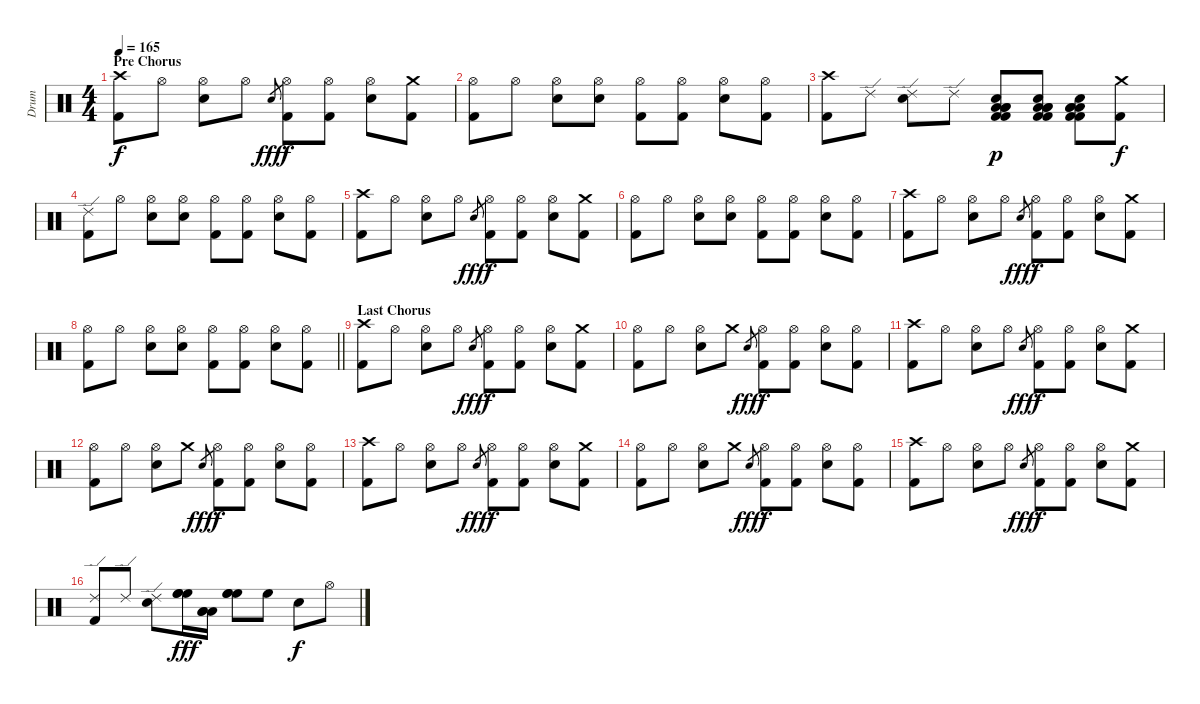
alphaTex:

\track ("Drum" "Drum") {instrument percussion}
\staff {score}
\articulation defaults
\ts (4 4)
\section ("" "Pre Chorus")
\tempo 165
\clef neutral
\ks c
("Crash high (hit)" "Kick (hit) 2").8{dy f} "Hi-Hat (open)".8 ("Hi-Hat (open)" "Electric Snare (hit)").8 "Hi-Hat (open)".8 "Electric Snare (hit)".8{gr dy fff} ("Hi-Hat (open)" "Kick (hit) 2").8{dy f} ("Hi-Hat (open)" "Kick (hit) 2").8 ("Hi-Hat (open)" "Electric Snare (hit)").8 ("Crash medium (hit)" "Kick (hit) 2").8 |
("Hi-Hat (open)" "Kick (hit) 2").8 "Hi-Hat (open)".8 ("Hi-Hat (open)" "Electric Snare (hit)").8 ("Hi-Hat (open)" "Electric Snare (hit)").8 ("Hi-Hat (open)" "Kick (hit) 2").8 ("Hi-Hat (open)" "Kick (hit) 2").8 ("Hi-Hat (open)" "Electric Snare (hit)").8 ("Hi-Hat (open)" "Kick (hit) 2").8 |
("Crash high (hit)" "Kick (hit) 2").8 "Ride (edge) 2".8 ("Ride (edge) 2" "Electric Snare (hit)").8 "Ride (edge) 2".8 ("Low Tom (hit)" "Low Floor Tom (hit)" "Low Floor Tom (hit)" "Kick (hit) 2" "Snare (hit) 2" "Kick (hit) 2").8{dy p} ("Low Tom (hit)" "Low Floor Tom (hit)" "Low Floor Tom (hit)" "Kick (hit) 2" "Snare (hit) 2" "Kick (hit) 2").8 ("Low Tom (hit)" "Low Floor Tom (hit)" "Low Floor Tom (hit)" "Kick (hit) 2" "Snare (hit) 2" "Kick (hit) 2").8 ("Crash medium (hit)" "Kick (hit) 2").8{dy f} |
("Ride (edge) 2" "Kick (hit) 2").8 "Hi-Hat (open)".8 ("Hi-Hat (open)" "Electric Snare (hit)").8 ("Hi-Hat (open)" "Electric Snare (hit)").8 ("Hi-Hat (open)" "Kick (hit) 2").8 ("Hi-Hat (open)" "Kick (hit) 2").8 ("Hi-Hat (open)" "Electric Snare (hit)").8 ("Hi-Hat (open)" "Kick (hit) 2").8 |
("Crash high (hit)" "Kick (hit) 2").8 "Hi-Hat (open)".8 ("Hi-Hat (open)" "Electric Snare (hit)").8 "Hi-Hat (open)".8 "Electric Snare (hit)".8{gr dy fff} ("Hi-Hat (open)" "Kick (hit) 2").8{dy f} ("Hi-Hat (open)" "Kick (hit) 2").8 ("Hi-Hat (open)" "Electric Snare (hit)").8 ("Crash medium (hit)" "Kick (hit) 2").8 |
("Hi-Hat (open)" "Kick (hit) 2").8 "Hi-Hat (open)".8 ("Hi-Hat (open)" "Electric Snare (hit)").8 ("Hi-Hat (open)" "Electric Snare (hit)").8 ("Hi-Hat (open)" "Kick (hit) 2").8 ("Hi-Hat (open)" "Kick (hit) 2").8 ("Hi-Hat (open)" "Electric Snare (hit)").8 ("Hi-Hat (open)" "Kick (hit) 2").8 |
("Crash high (hit)" "Kick (hit) 2").8 "Hi-Hat (open)".8 ("Hi-Hat (open)" "Electric Snare (hit)").8 "Hi-Hat (open)".8 "Electric Snare (hit)".8{gr dy fff} ("Hi-Hat (open)" "Kick (hit) 2").8{dy f} ("Hi-Hat (open)" "Kick (hit) 2").8 ("Hi-Hat (open)" "Electric Snare (hit)").8 ("Crash medium (hit)" "Kick (hit) 2").8 |
\barLineRight lightlight
("Hi-Hat (open)" "Kick (hit) 2").8 "Hi-Hat (open)".8 ("Hi-Hat (open)" "Electric Snare (hit)").8 ("Hi-Hat (open)" "Electric Snare (hit)").8 ("Hi-Hat (open)" "Kick (hit) 2").8 ("Hi-Hat (open)" "Kick (hit) 2").8 ("Hi-Hat (open)" "Electric Snare (hit)").8 ("Hi-Hat (open)" "Kick (hit) 2").8 |
\section ("" "Last Chorus")
("Crash high (hit)" "Kick (hit) 2").8 "Hi-Hat (open)".8 ("Hi-Hat (open)" "Electric Snare (hit)").8 "Hi-Hat (open)".8 "Electric Snare (hit)".8{gr dy fff} ("Hi-Hat (open)" "Kick (hit) 2").8{dy f} ("Hi-Hat (open)" "Kick (hit) 2").8 ("Hi-Hat (open)" "Electric Snare (hit)").8 ("Crash medium (hit)" "Kick (hit) 2").8 |
("Hi-Hat (open)" "Kick (hit) 2").8 "Hi-Hat (open)".8 ("Hi-Hat (open)" "Electric Snare (hit)").8 "Crash medium (hit)".8 "Electric Snare (hit)".8{gr dy fff} ("Hi-Hat (open)" "Kick (hit) 2").8{dy f} ("Hi-Hat (open)" "Kick (hit) 2").8 ("Hi-Hat (open)" "Electric Snare (hit)").8 ("Hi-Hat (open)" "Kick (hit) 2").8 |
("Crash high (hit)" "Kick (hit) 2").8 "Hi-Hat (open)".8 ("Hi-Hat (open)" "Electric Snare (hit)").8 "Hi-Hat (open)".8 "Electric Snare (hit)".8{gr dy fff} ("Hi-Hat (open)" "Kick (hit) 2").8{dy f} ("Hi-Hat (open)" "Kick (hit) 2").8 ("Hi-Hat (open)" "Electric Snare (hit)").8 ("Crash medium (hit)" "Kick (hit) 2").8 |
("Hi-Hat (open)" "Kick (hit) 2").8 "Hi-Hat (open)".8 ("Hi-Hat (open)" "Electric Snare (hit)").8 "Crash medium (hit)".8 "Electric Snare (hit)".8{gr dy fff} ("Hi-Hat (open)" "Kick (hit) 2").8{dy f} ("Hi-Hat (open)" "Kick (hit) 2").8 ("Hi-Hat (open)" "Electric Snare (hit)").8 ("Hi-Hat (open)" "Kick (hit) 2").8 |
("Crash high (hit)" "Kick (hit) 2").8 "Hi-Hat (open)".8 ("Hi-Hat (open)" "Electric Snare (hit)").8 "Hi-Hat (open)".8 "Electric Snare (hit)".8{gr dy fff} ("Hi-Hat (open)" "Kick (hit) 2").8{dy f} ("Hi-Hat (open)" "Kick (hit) 2").8 ("Hi-Hat (open)" "Electric Snare (hit)").8 ("Crash medium (hit)" "Kick (hit) 2").8 |
("Hi-Hat (open)" "Kick (hit) 2").8 "Hi-Hat (open)".8 ("Hi-Hat (open)" "Electric Snare (hit)").8 "Crash medium (hit)".8 "Electric Snare (hit)".8{gr dy fff} ("Hi-Hat (open)" "Kick (hit) 2").8{dy f} ("Hi-Hat (open)" "Kick (hit) 2").8 ("Hi-Hat (open)" "Electric Snare (hit)").8 ("Hi-Hat (open)" "Kick (hit) 2").8 |
("Crash high (hit)" "Kick (hit) 2").8 "Hi-Hat (open)".8 ("Hi-Hat (open)" "Electric Snare (hit)").8 "Hi-Hat (open)".8 "Electric Snare (hit)".8{gr dy fff} ("Hi-Hat (open)" "Kick (hit) 2").8{dy f} ("Hi-Hat (open)" "Kick (hit) 2").8 ("Hi-Hat (open)" "Electric Snare (hit)").8 ("Crash medium (hit)" "Kick (hit) 2").8 |
("Ride (edge) 2" "Kick (hit) 2").8 "Ride (edge) 2".8 ("Ride (edge) 2" "Electric Snare (hit)").8 ("High Floor Tom (hit)" "High Floor Tom (hit)" "High Floor Tom (hit)").16{dy fff} ("Low Tom (hit)" "Low Tom (hit)" "Low Tom (hit)").16 ("High Floor Tom (hit)" "High Floor Tom (hit)" "High Floor Tom (hit)").8 "High Floor Tom (hit)".8 "Electric Snare (hit)".8{dy f} "Hi-Hat (open)".8
